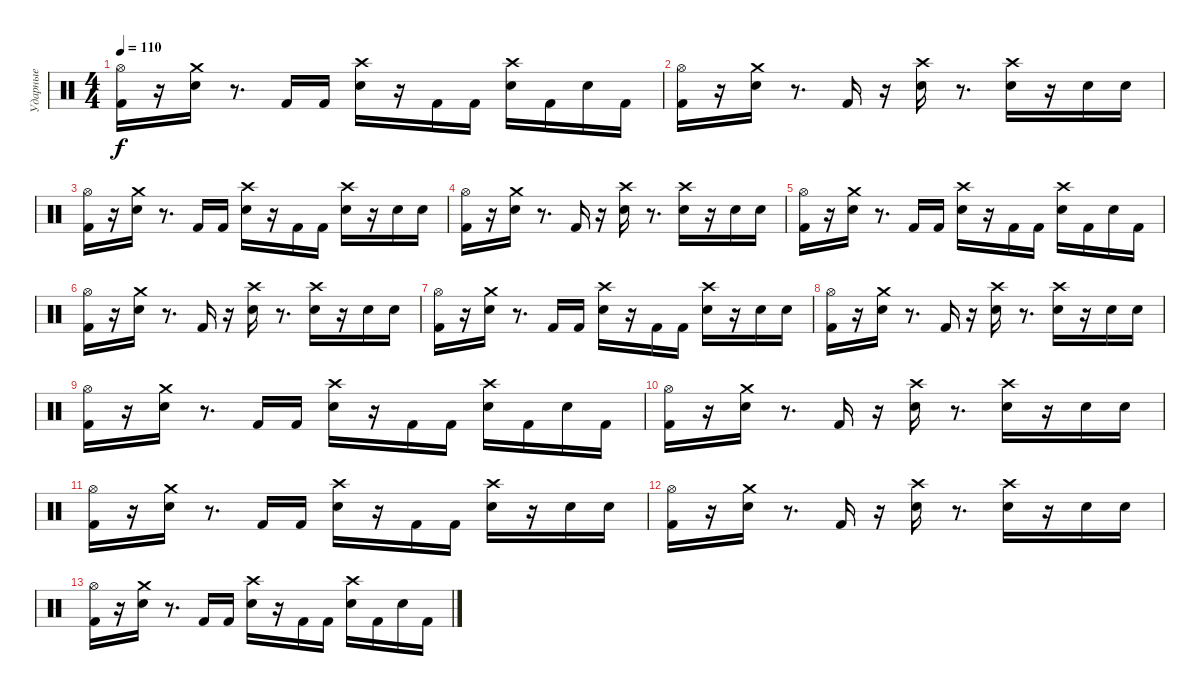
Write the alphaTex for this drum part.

\track ("Ударные" "Ударные") {instrument percussion}
\staff {score}
\articulation defaults
\ts (4 4)
\tempo 110
\clef neutral
\ks c
("Hi-Hat (open)" "Kick (hit) 2").16{dy f volume 11} r.16 ("Crash medium (hit)" "Electric Snare (hit)").16{volume 11} r.8{d} "Kick (hit) 2".16{volume 10} "Kick (hit) 2".16{volume 10} ("Crash high (hit)" "Electric Snare (hit)").16{volume 10} r.16 "Kick (hit) 2".16{volume 10} "Kick (hit) 2".16{volume 10} ("Crash high (hit)" "Electric Snare (hit)").16{volume 10} "Kick (hit) 2".16{volume 10} "Electric Snare (hit)".16{volume 10} "Kick (hit) 2".16{volume 10} |
("Hi-Hat (open)" "Kick (hit) 2").16{volume 10} r.16 ("Crash medium (hit)" "Electric Snare (hit)").16{volume 10} r.8{d} "Kick (hit) 2".16{volume 10} r.16 ("Crash high (hit)" "Electric Snare (hit)").16{volume 10} r.8{d} ("Crash high (hit)" "Electric Snare (hit)").16{volume 9} r.16 "Electric Snare (hit)".16{volume 9} "Electric Snare (hit)".16{volume 9} |
("Hi-Hat (open)" "Kick (hit) 2").16{volume 9} r.16 ("Crash medium (hit)" "Electric Snare (hit)").16{volume 9} r.8{d} "Kick (hit) 2".16{volume 9} "Kick (hit) 2".16{volume 8} ("Crash high (hit)" "Electric Snare (hit)").16{volume 8} r.16 "Kick (hit) 2".16{volume 8} "Kick (hit) 2".16{volume 8} ("Crash high (hit)" "Electric Snare (hit)").16{volume 8} r.16 "Electric Snare (hit)".16{volume 8} "Electric Snare (hit)".16{volume 8} |
("Hi-Hat (open)" "Kick (hit) 2").16{volume 8} r.16 ("Crash medium (hit)" "Electric Snare (hit)").16{volume 8} r.8{d} "Kick (hit) 2".16{volume 8} r.16 ("Crash high (hit)" "Electric Snare (hit)").16{volume 8} r.8{d} ("Crash high (hit)" "Electric Snare (hit)").16{volume 7} r.16 "Electric Snare (hit)".16{volume 7} "Electric Snare (hit)".16{volume 7} |
("Hi-Hat (open)" "Kick (hit) 2").16{volume 7} r.16 ("Crash medium (hit)" "Electric Snare (hit)").16{volume 7} r.8{d} "Kick (hit) 2".16{volume 7} "Kick (hit) 2".16{volume 6} ("Crash high (hit)" "Electric Snare (hit)").16{volume 6} r.16 "Kick (hit) 2".16{volume 6} "Kick (hit) 2".16{volume 6} ("Crash high (hit)" "Electric Snare (hit)").16{volume 6} "Kick (hit) 2".16{volume 6} "Electric Snare (hit)".16{volume 6} "Kick (hit) 2".16{volume 6} |
("Hi-Hat (open)" "Kick (hit) 2").16{volume 6} r.16 ("Crash medium (hit)" "Electric Snare (hit)").16{volume 6} r.8{d} "Kick (hit) 2".16{volume 6} r.16 ("Crash high (hit)" "Electric Snare (hit)").16{volume 6} r.8{d} ("Crash high (hit)" "Electric Snare (hit)").16{volume 5} r.16 "Electric Snare (hit)".16{volume 5} "Electric Snare (hit)".16{volume 5} |
("Hi-Hat (open)" "Kick (hit) 2").16{volume 5} r.16 ("Crash medium (hit)" "Electric Snare (hit)").16{volume 5} r.8{d} "Kick (hit) 2".16{volume 5} "Kick (hit) 2".16{volume 5} ("Crash high (hit)" "Electric Snare (hit)").16{volume 5} r.16 "Kick (hit) 2".16{volume 5} "Kick (hit) 2".16{volume 5} ("Crash high (hit)" "Electric Snare (hit)").16{volume 5} r.16 "Electric Snare (hit)".16{volume 5} "Electric Snare (hit)".16{volume 4} |
("Hi-Hat (open)" "Kick (hit) 2").16{volume 4} r.16 ("Crash medium (hit)" "Electric Snare (hit)").16{volume 4} r.8{d} "Kick (hit) 2".16{volume 4} r.16 ("Crash high (hit)" "Electric Snare (hit)").16{volume 4} r.8{d} ("Crash high (hit)" "Electric Snare (hit)").16{volume 4} r.16 "Electric Snare (hit)".16{volume 4} "Electric Snare (hit)".16{volume 4} |
("Hi-Hat (open)" "Kick (hit) 2").16{volume 4} r.16 ("Crash medium (hit)" "Electric Snare (hit)").16{volume 4} r.8{d} "Kick (hit) 2".16{volume 4} "Kick (hit) 2".16{volume 3} ("Crash high (hit)" "Electric Snare (hit)").16{volume 3} r.16 "Kick (hit) 2".16{volume 3} "Kick (hit) 2".16{volume 3} ("Crash high (hit)" "Electric Snare (hit)").16{volume 3} "Kick (hit) 2".16{volume 3} "Electric Snare (hit)".16{volume 3} "Kick (hit) 2".16{volume 3} |
("Hi-Hat (open)" "Kick (hit) 2").16{volume 3} r.16 ("Crash medium (hit)" "Electric Snare (hit)").16{volume 3} r.8{d} "Kick (hit) 2".16{volume 3} r.16 ("Crash high (hit)" "Electric Snare (hit)").16{volume 3} r.8{d} ("Crash high (hit)" "Electric Snare (hit)").16{volume 2} r.16 "Electric Snare (hit)".16{volume 2} "Electric Snare (hit)".16{volume 2} |
("Hi-Hat (open)" "Kick (hit) 2").16{volume 2} r.16 ("Crash medium (hit)" "Electric Snare (hit)").16{volume 2} r.8{d} "Kick (hit) 2".16{volume 2} "Kick (hit) 2".16{volume 2} ("Crash high (hit)" "Electric Snare (hit)").16{volume 2} r.16 "Kick (hit) 2".16{volume 2} "Kick (hit) 2".16{volume 2} ("Crash high (hit)" "Electric Snare (hit)").16{volume 2} r.16 "Electric Snare (hit)".16{volume 2} "Electric Snare (hit)".16{volume 2} |
("Hi-Hat (open)" "Kick (hit) 2").16{volume 2} r.16 ("Crash medium (hit)" "Electric Snare (hit)").16{volume 1} r.8{d} "Kick (hit) 2".16{volume 1} r.16 ("Crash high (hit)" "Electric Snare (hit)").16{volume 1} r.8{d} ("Crash high (hit)" "Electric Snare (hit)").16{volume 1} r.16 "Electric Snare (hit)".16{volume 1} "Electric Snare (hit)".16{volume 1} |
("Hi-Hat (open)" "Kick (hit) 2").16{volume 1} r.16 ("Crash medium (hit)" "Electric Snare (hit)").16{volume 1} r.8{d} "Kick (hit) 2".16{volume 0} "Kick (hit) 2".16{volume 0} ("Crash high (hit)" "Electric Snare (hit)").16{volume 0} r.16 "Kick (hit) 2".16{volume 0} "Kick (hit) 2".16{volume 0} ("Crash high (hit)" "Electric Snare (hit)").16{volume 0} "Kick (hit) 2".16{volume 0} "Electric Snare (hit)".16{volume 0} "Kick (hit) 2".16{volume 0}
